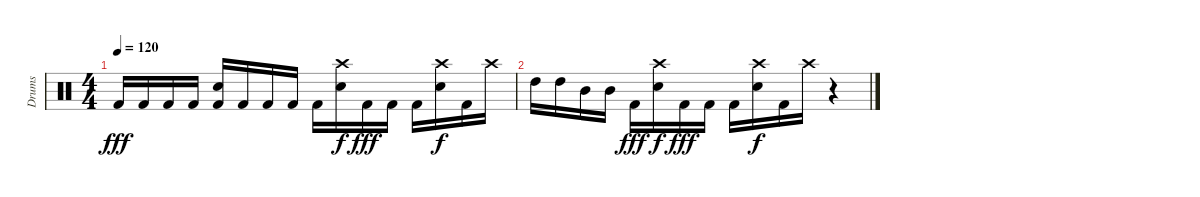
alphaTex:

\track ("Drums" "Drums") {instrument percussion}
\staff {score}
\articulation defaults
\ts (4 4)
\tempo 120
\clef neutral
\ks c "Kick (hit) 2".16{dy fff} "Kick (hit) 2".16 "Kick (hit) 2".16 "Kick (hit) 2".16
("Snare (hit) 2" "Kick (hit) 2").16 "Kick (hit) 2".16 "Kick (hit) 2".16 "Kick (hit) 2".16 "Kick (hit) 2".16 ("Crash high (hit)" "Snare (hit) 2").16{dy f} "Kick (hit) 2".16{dy fff} "Kick (hit) 2".16 "Kick (hit) 2".16 ("Crash high (hit)" "Snare (hit) 2").16{dy f} "Kick (hit) 2".16 "Crash high (hit)".16 |
"High Tom (hit)".16 "High Tom (hit)".16 "Mid Tom (hit)".16 "Mid Tom (hit)".16 "Kick (hit) 2".16{dy fff} ("Crash high (hit)" "Snare (hit) 2").16{dy f} "Kick (hit) 2".16{dy fff} "Kick (hit) 2".16 "Kick (hit) 2".16 ("Crash high (hit)" "Snare (hit) 2").16{dy f} "Kick (hit) 2".16 "Crash high (hit)".16 r.4
